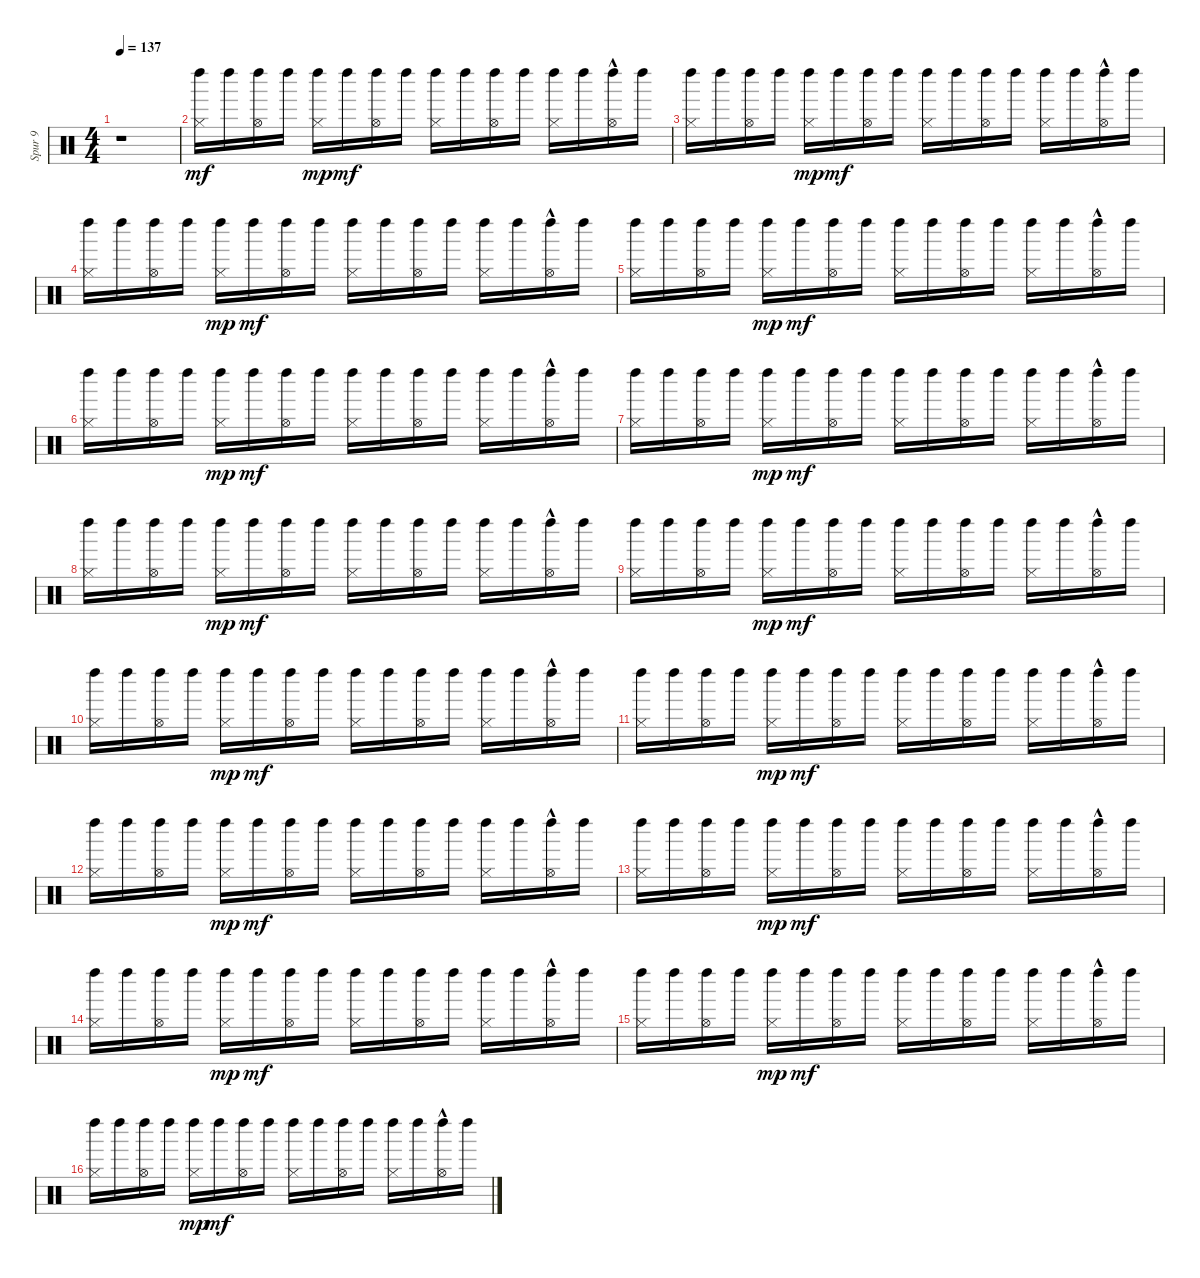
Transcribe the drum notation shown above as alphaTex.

\track ("Spur 9" "Spur 9") {instrument percussion}
\staff {score}
\articulation defaults
\ts (4 4)
\tempo 137
\clef neutral
\ks c
r.1{dy mf} |
("Hi-Hat (closed)" "Left Maraca (hit)").16 "Left Maraca (hit)".16 ("Hi-Hat (open)" "Left Maraca (hit)").16 "Left Maraca (hit)".16 ("Hi-Hat (closed)" "Left Maraca (hit)").16{dy mp} "Left Maraca (hit)".16{dy mf} ("Hi-Hat (open)" "Left Maraca (hit)").16 "Left Maraca (hit)".16 ("Hi-Hat (closed)" "Left Maraca (hit)").16 "Left Maraca (hit)".16 ("Hi-Hat (open)" "Left Maraca (hit)").16 "Left Maraca (hit)".16 ("Hi-Hat (closed)" "Left Maraca (hit)").16 "Left Maraca (hit)".16 ("Hi-Hat (open)"{hac} "Left Maraca (hit)").16 "Left Maraca (hit)".16 |
("Hi-Hat (closed)" "Left Maraca (hit)").16 "Left Maraca (hit)".16 ("Hi-Hat (open)" "Left Maraca (hit)").16 "Left Maraca (hit)".16 ("Hi-Hat (closed)" "Left Maraca (hit)").16{dy mp} "Left Maraca (hit)".16{dy mf} ("Hi-Hat (open)" "Left Maraca (hit)").16 "Left Maraca (hit)".16 ("Hi-Hat (closed)" "Left Maraca (hit)").16 "Left Maraca (hit)".16 ("Hi-Hat (open)" "Left Maraca (hit)").16 "Left Maraca (hit)".16 ("Hi-Hat (closed)" "Left Maraca (hit)").16 "Left Maraca (hit)".16 ("Hi-Hat (open)"{hac} "Left Maraca (hit)").16 "Left Maraca (hit)".16 |
("Hi-Hat (closed)" "Left Maraca (hit)").16 "Left Maraca (hit)".16 ("Hi-Hat (open)" "Left Maraca (hit)").16 "Left Maraca (hit)".16 ("Hi-Hat (closed)" "Left Maraca (hit)").16{dy mp} "Left Maraca (hit)".16{dy mf} ("Hi-Hat (open)" "Left Maraca (hit)").16 "Left Maraca (hit)".16 ("Hi-Hat (closed)" "Left Maraca (hit)").16 "Left Maraca (hit)".16 ("Hi-Hat (open)" "Left Maraca (hit)").16 "Left Maraca (hit)".16 ("Hi-Hat (closed)" "Left Maraca (hit)").16 "Left Maraca (hit)".16 ("Hi-Hat (open)"{hac} "Left Maraca (hit)").16 "Left Maraca (hit)".16 |
("Hi-Hat (closed)" "Left Maraca (hit)").16 "Left Maraca (hit)".16 ("Hi-Hat (open)" "Left Maraca (hit)").16 "Left Maraca (hit)".16 ("Hi-Hat (closed)" "Left Maraca (hit)").16{dy mp} "Left Maraca (hit)".16{dy mf} ("Hi-Hat (open)" "Left Maraca (hit)").16 "Left Maraca (hit)".16 ("Hi-Hat (closed)" "Left Maraca (hit)").16 "Left Maraca (hit)".16 ("Hi-Hat (open)" "Left Maraca (hit)").16 "Left Maraca (hit)".16 ("Hi-Hat (closed)" "Left Maraca (hit)").16 "Left Maraca (hit)".16 ("Hi-Hat (open)"{hac} "Left Maraca (hit)").16 "Left Maraca (hit)".16 |
("Hi-Hat (closed)" "Left Maraca (hit)").16 "Left Maraca (hit)".16 ("Hi-Hat (open)" "Left Maraca (hit)").16 "Left Maraca (hit)".16 ("Hi-Hat (closed)" "Left Maraca (hit)").16{dy mp} "Left Maraca (hit)".16{dy mf} ("Hi-Hat (open)" "Left Maraca (hit)").16 "Left Maraca (hit)".16 ("Hi-Hat (closed)" "Left Maraca (hit)").16 "Left Maraca (hit)".16 ("Hi-Hat (open)" "Left Maraca (hit)").16 "Left Maraca (hit)".16 ("Hi-Hat (closed)" "Left Maraca (hit)").16 "Left Maraca (hit)".16 ("Hi-Hat (open)"{hac} "Left Maraca (hit)").16 "Left Maraca (hit)".16 |
("Hi-Hat (closed)" "Left Maraca (hit)").16 "Left Maraca (hit)".16 ("Hi-Hat (open)" "Left Maraca (hit)").16 "Left Maraca (hit)".16 ("Hi-Hat (closed)" "Left Maraca (hit)").16{dy mp} "Left Maraca (hit)".16{dy mf} ("Hi-Hat (open)" "Left Maraca (hit)").16 "Left Maraca (hit)".16 ("Hi-Hat (closed)" "Left Maraca (hit)").16 "Left Maraca (hit)".16 ("Hi-Hat (open)" "Left Maraca (hit)").16 "Left Maraca (hit)".16 ("Hi-Hat (closed)" "Left Maraca (hit)").16 "Left Maraca (hit)".16 ("Hi-Hat (open)"{hac} "Left Maraca (hit)").16 "Left Maraca (hit)".16 |
("Hi-Hat (closed)" "Left Maraca (hit)").16 "Left Maraca (hit)".16 ("Hi-Hat (open)" "Left Maraca (hit)").16 "Left Maraca (hit)".16 ("Hi-Hat (closed)" "Left Maraca (hit)").16{dy mp} "Left Maraca (hit)".16{dy mf} ("Hi-Hat (open)" "Left Maraca (hit)").16 "Left Maraca (hit)".16 ("Hi-Hat (closed)" "Left Maraca (hit)").16 "Left Maraca (hit)".16 ("Hi-Hat (open)" "Left Maraca (hit)").16 "Left Maraca (hit)".16 ("Hi-Hat (closed)" "Left Maraca (hit)").16 "Left Maraca (hit)".16 ("Hi-Hat (open)"{hac} "Left Maraca (hit)").16 "Left Maraca (hit)".16 |
("Hi-Hat (closed)" "Left Maraca (hit)").16 "Left Maraca (hit)".16 ("Hi-Hat (open)" "Left Maraca (hit)").16 "Left Maraca (hit)".16 ("Hi-Hat (closed)" "Left Maraca (hit)").16{dy mp} "Left Maraca (hit)".16{dy mf} ("Hi-Hat (open)" "Left Maraca (hit)").16 "Left Maraca (hit)".16 ("Hi-Hat (closed)" "Left Maraca (hit)").16 "Left Maraca (hit)".16 ("Hi-Hat (open)" "Left Maraca (hit)").16 "Left Maraca (hit)".16 ("Hi-Hat (closed)" "Left Maraca (hit)").16 "Left Maraca (hit)".16 ("Hi-Hat (open)"{hac} "Left Maraca (hit)").16 "Left Maraca (hit)".16 |
("Hi-Hat (closed)" "Left Maraca (hit)").16 "Left Maraca (hit)".16 ("Hi-Hat (open)" "Left Maraca (hit)").16 "Left Maraca (hit)".16 ("Hi-Hat (closed)" "Left Maraca (hit)").16{dy mp} "Left Maraca (hit)".16{dy mf} ("Hi-Hat (open)" "Left Maraca (hit)").16 "Left Maraca (hit)".16 ("Hi-Hat (closed)" "Left Maraca (hit)").16 "Left Maraca (hit)".16 ("Hi-Hat (open)" "Left Maraca (hit)").16 "Left Maraca (hit)".16 ("Hi-Hat (closed)" "Left Maraca (hit)").16 "Left Maraca (hit)".16 ("Hi-Hat (open)"{hac} "Left Maraca (hit)").16 "Left Maraca (hit)".16 |
("Hi-Hat (closed)" "Left Maraca (hit)").16 "Left Maraca (hit)".16 ("Hi-Hat (open)" "Left Maraca (hit)").16 "Left Maraca (hit)".16 ("Hi-Hat (closed)" "Left Maraca (hit)").16{dy mp} "Left Maraca (hit)".16{dy mf} ("Hi-Hat (open)" "Left Maraca (hit)").16 "Left Maraca (hit)".16 ("Hi-Hat (closed)" "Left Maraca (hit)").16 "Left Maraca (hit)".16 ("Hi-Hat (open)" "Left Maraca (hit)").16 "Left Maraca (hit)".16 ("Hi-Hat (closed)" "Left Maraca (hit)").16 "Left Maraca (hit)".16 ("Hi-Hat (open)"{hac} "Left Maraca (hit)").16 "Left Maraca (hit)".16 |
("Hi-Hat (closed)" "Left Maraca (hit)").16 "Left Maraca (hit)".16 ("Hi-Hat (open)" "Left Maraca (hit)").16 "Left Maraca (hit)".16 ("Hi-Hat (closed)" "Left Maraca (hit)").16{dy mp} "Left Maraca (hit)".16{dy mf} ("Hi-Hat (open)" "Left Maraca (hit)").16 "Left Maraca (hit)".16 ("Hi-Hat (closed)" "Left Maraca (hit)").16 "Left Maraca (hit)".16 ("Hi-Hat (open)" "Left Maraca (hit)").16 "Left Maraca (hit)".16 ("Hi-Hat (closed)" "Left Maraca (hit)").16 "Left Maraca (hit)".16 ("Hi-Hat (open)"{hac} "Left Maraca (hit)").16 "Left Maraca (hit)".16 |
("Hi-Hat (closed)" "Left Maraca (hit)").16 "Left Maraca (hit)".16 ("Hi-Hat (open)" "Left Maraca (hit)").16 "Left Maraca (hit)".16 ("Hi-Hat (closed)" "Left Maraca (hit)").16{dy mp} "Left Maraca (hit)".16{dy mf} ("Hi-Hat (open)" "Left Maraca (hit)").16 "Left Maraca (hit)".16 ("Hi-Hat (closed)" "Left Maraca (hit)").16 "Left Maraca (hit)".16 ("Hi-Hat (open)" "Left Maraca (hit)").16 "Left Maraca (hit)".16 ("Hi-Hat (closed)" "Left Maraca (hit)").16 "Left Maraca (hit)".16 ("Hi-Hat (open)"{hac} "Left Maraca (hit)").16 "Left Maraca (hit)".16 |
("Hi-Hat (closed)" "Left Maraca (hit)").16 "Left Maraca (hit)".16 ("Hi-Hat (open)" "Left Maraca (hit)").16 "Left Maraca (hit)".16 ("Hi-Hat (closed)" "Left Maraca (hit)").16{dy mp} "Left Maraca (hit)".16{dy mf} ("Hi-Hat (open)" "Left Maraca (hit)").16 "Left Maraca (hit)".16 ("Hi-Hat (closed)" "Left Maraca (hit)").16 "Left Maraca (hit)".16 ("Hi-Hat (open)" "Left Maraca (hit)").16 "Left Maraca (hit)".16 ("Hi-Hat (closed)" "Left Maraca (hit)").16 "Left Maraca (hit)".16 ("Hi-Hat (open)"{hac} "Left Maraca (hit)").16 "Left Maraca (hit)".16 |
("Hi-Hat (closed)" "Left Maraca (hit)").16 "Left Maraca (hit)".16 ("Hi-Hat (open)" "Left Maraca (hit)").16 "Left Maraca (hit)".16 ("Hi-Hat (closed)" "Left Maraca (hit)").16{dy mp} "Left Maraca (hit)".16{dy mf} ("Hi-Hat (open)" "Left Maraca (hit)").16 "Left Maraca (hit)".16 ("Hi-Hat (closed)" "Left Maraca (hit)").16 "Left Maraca (hit)".16 ("Hi-Hat (open)" "Left Maraca (hit)").16 "Left Maraca (hit)".16 ("Hi-Hat (closed)" "Left Maraca (hit)").16 "Left Maraca (hit)".16 ("Hi-Hat (open)"{hac} "Left Maraca (hit)").16 "Left Maraca (hit)".16 |
("Hi-Hat (closed)" "Left Maraca (hit)").16 "Left Maraca (hit)".16 ("Hi-Hat (open)" "Left Maraca (hit)").16 "Left Maraca (hit)".16 ("Hi-Hat (closed)" "Left Maraca (hit)").16{dy mp} "Left Maraca (hit)".16{dy mf} ("Hi-Hat (open)" "Left Maraca (hit)").16 "Left Maraca (hit)".16 ("Hi-Hat (closed)" "Left Maraca (hit)").16 "Left Maraca (hit)".16 ("Hi-Hat (open)" "Left Maraca (hit)").16 "Left Maraca (hit)".16 ("Hi-Hat (closed)" "Left Maraca (hit)").16 "Left Maraca (hit)".16 ("Hi-Hat (open)"{hac} "Left Maraca (hit)").16 "Left Maraca (hit)".16
